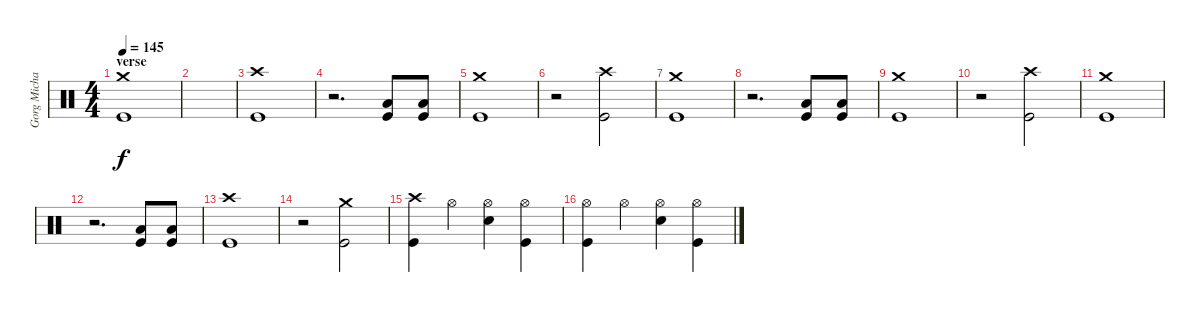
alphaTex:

\track ("Gorg Michael" "Gorg Micha") {instrument percussion}
\staff {score}
\articulation defaults
\ts (4 4)
\section ("" "verse")
\tempo 145
\clef neutral
\ks c
("Crash medium (hit)" "Kick (hit)").1{dy f} |
|
("Crash high (hit)" "Kick (hit)").1 |
r.2{d} ("Low Tom (hit)" "Kick (hit)").8 ("Low Tom (hit)" "Kick (hit)").8 |
("Crash medium (hit)" "Kick (hit)").1 |
r.2 ("Crash high (hit)" "Kick (hit)").2 |
("Crash medium (hit)" "Kick (hit)").1 |
r.2{d} ("Low Tom (hit)" "Kick (hit)").8 ("Low Tom (hit)" "Kick (hit)").8 |
("Crash medium (hit)" "Kick (hit)").1 |
r.2 ("Crash high (hit)" "Kick (hit)").2 |
("Crash medium (hit)" "Kick (hit)").1 |
r.2{d} ("Low Tom (hit)" "Kick (hit)").8 ("Low Tom (hit)" "Kick (hit)").8 |
("Crash high (hit)" "Kick (hit)").1 |
r.2 ("Crash medium (hit)" "Kick (hit)").2 |
("Crash high (hit)" "Kick (hit)").4 "Hi-Hat (open)".4 ("Hi-Hat (open)" "Snare (hit) 2").4 ("Hi-Hat (open)" "Kick (hit)").4 |
("Hi-Hat (open)" "Kick (hit)").4 "Hi-Hat (open)".4 ("Hi-Hat (open)" "Snare (hit) 2").4 ("Hi-Hat (open)" "Kick (hit)").4
